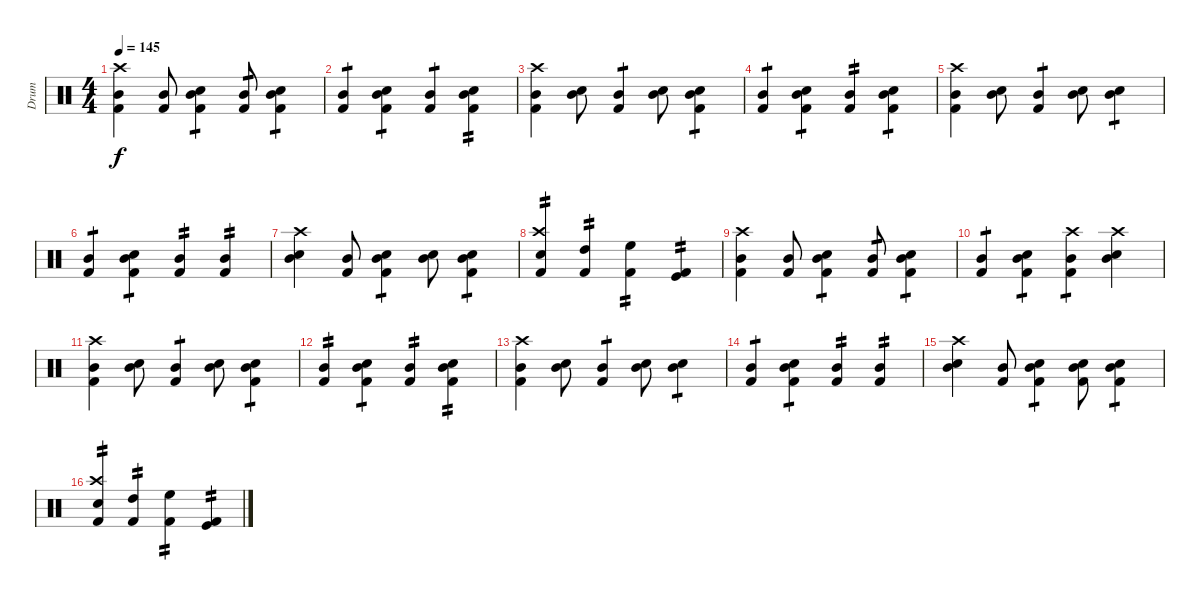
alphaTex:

\track ("Drum" "Drum") {instrument percussion}
\staff {score}
\articulation defaults
\ts (4 4)
\tempo 145
\clef neutral
\ks c
("Mid Tom (hit)" "Kick (hit) 2" "Crash high (hit)").4{dy f} ("Mid Tom (hit)" "Kick (hit) 2").8 ("Mid Tom (hit)" "Kick (hit) 2" "Snare (hit) 2").4{tp 1} ("Mid Tom (hit)" "Kick (hit) 2").8{tp 1} ("Mid Tom (hit)" "Snare (hit) 2" "Kick (hit) 2").4{tp 1} |
("Mid Tom (hit)" "Kick (hit) 2").4{tp 1} ("Mid Tom (hit)" "Kick (hit) 2" "Snare (hit) 2").4{tp 1} ("Mid Tom (hit)" "Kick (hit) 2").4{tp 1} ("Mid Tom (hit)" "Snare (hit) 2" "Kick (hit) 2").4{tp 2} |
("Mid Tom (hit)" "Kick (hit) 2" "Crash high (hit)").4 ("Mid Tom (hit)" "Snare (hit) 2").8 ("Mid Tom (hit)" "Kick (hit) 2").4{tp 1} ("Mid Tom (hit)" "Snare (hit) 2").8 ("Mid Tom (hit)" "Snare (hit) 2" "Kick (hit) 2").4{tp 1} |
("Mid Tom (hit)" "Kick (hit) 2").4{tp 1} ("Mid Tom (hit)" "Kick (hit) 2" "Snare (hit) 2").4{tp 1} ("Mid Tom (hit)" "Kick (hit) 2").4{tp 2} ("Mid Tom (hit)" "Kick (hit) 2" "Snare (hit) 2").4{tp 1} |
("Mid Tom (hit)" "Kick (hit) 2" "Crash high (hit)").4 ("Mid Tom (hit)" "Snare (hit) 2").8 ("Mid Tom (hit)" "Kick (hit) 2").4{tp 1} ("Mid Tom (hit)" "Snare (hit) 2").8 ("Mid Tom (hit)" "Snare (hit) 2").4{tp 1} |
("Mid Tom (hit)" "Kick (hit) 2").4{tp 1} ("Mid Tom (hit)" "Kick (hit) 2" "Snare (hit) 2").4{tp 1} ("Mid Tom (hit)" "Kick (hit) 2").4{tp 2} ("Mid Tom (hit)" "Kick (hit) 2").4{tp 2} |
("Mid Tom (hit)" "Snare (hit) 2" "Crash high (hit)").4 ("Mid Tom (hit)" "Kick (hit) 2").8 ("Mid Tom (hit)" "Kick (hit) 2" "Snare (hit) 2").4{tp 1} ("Mid Tom (hit)" "Snare (hit) 2").8 ("Mid Tom (hit)" "Snare (hit) 2" "Kick (hit) 2").4{tp 1} |
("Crash high (hit)" "Kick (hit) 2" "Snare (hit) 2").4{tp 2} ("High Tom (hit)" "Kick (hit) 2").4{tp 2} ("High Floor Tom (hit)" "Kick (hit) 2").4{tp 2} ("Kick (hit)" "Kick (hit) 2").4{tp 2} |
("Mid Tom (hit)" "Kick (hit) 2" "Crash high (hit)").4 ("Mid Tom (hit)" "Kick (hit) 2").8 ("Mid Tom (hit)" "Kick (hit) 2" "Snare (hit) 2").4{tp 1} ("Mid Tom (hit)" "Kick (hit) 2").8{tp 1} ("Mid Tom (hit)" "Snare (hit) 2" "Kick (hit) 2").4{tp 1} |
("Mid Tom (hit)" "Kick (hit) 2").4{tp 1} ("Mid Tom (hit)" "Kick (hit) 2" "Snare (hit) 2").4{tp 1} ("Mid Tom (hit)" "Kick (hit) 2" "Crash high (hit)").4{tp 1} ("Mid Tom (hit)" "Snare (hit) 2" "Crash high (hit)").4 |
("Mid Tom (hit)" "Kick (hit) 2" "Crash high (hit)").4 ("Mid Tom (hit)" "Snare (hit) 2").8 ("Mid Tom (hit)" "Kick (hit) 2").4{tp 1} ("Mid Tom (hit)" "Snare (hit) 2").8 ("Mid Tom (hit)" "Snare (hit) 2" "Kick (hit) 2").4{tp 1} |
("Mid Tom (hit)" "Kick (hit) 2").4{tp 2} ("Mid Tom (hit)" "Kick (hit) 2" "Snare (hit) 2").4{tp 1} ("Mid Tom (hit)" "Kick (hit) 2").4{tp 2} ("Mid Tom (hit)" "Kick (hit) 2" "Snare (hit) 2").4{tp 2} |
("Mid Tom (hit)" "Kick (hit) 2" "Crash high (hit)").4 ("Mid Tom (hit)" "Snare (hit) 2").8 ("Mid Tom (hit)" "Kick (hit) 2").4{tp 1} ("Mid Tom (hit)" "Snare (hit) 2").8 ("Mid Tom (hit)" "Snare (hit) 2").4{tp 1} |
("Mid Tom (hit)" "Kick (hit) 2").4{tp 1} ("Mid Tom (hit)" "Kick (hit) 2" "Snare (hit) 2").4{tp 1} ("Mid Tom (hit)" "Kick (hit) 2").4{tp 2} ("Mid Tom (hit)" "Kick (hit) 2").4{tp 2} |
("Mid Tom (hit)" "Snare (hit) 2" "Crash high (hit)").4 ("Mid Tom (hit)" "Kick (hit) 2").8 ("Mid Tom (hit)" "Kick (hit) 2" "Snare (hit) 2").4{tp 1} ("Mid Tom (hit)" "Snare (hit) 2" "Kick (hit) 2").8 ("Mid Tom (hit)" "Snare (hit) 2" "Kick (hit) 2").4{tp 1} |
("Crash high (hit)" "Kick (hit) 2" "Snare (hit) 2").4{tp 2} ("High Tom (hit)" "Kick (hit) 2").4{tp 2} ("High Floor Tom (hit)" "Kick (hit) 2").4{tp 2} ("Kick (hit)" "Kick (hit) 2").4{tp 2}
